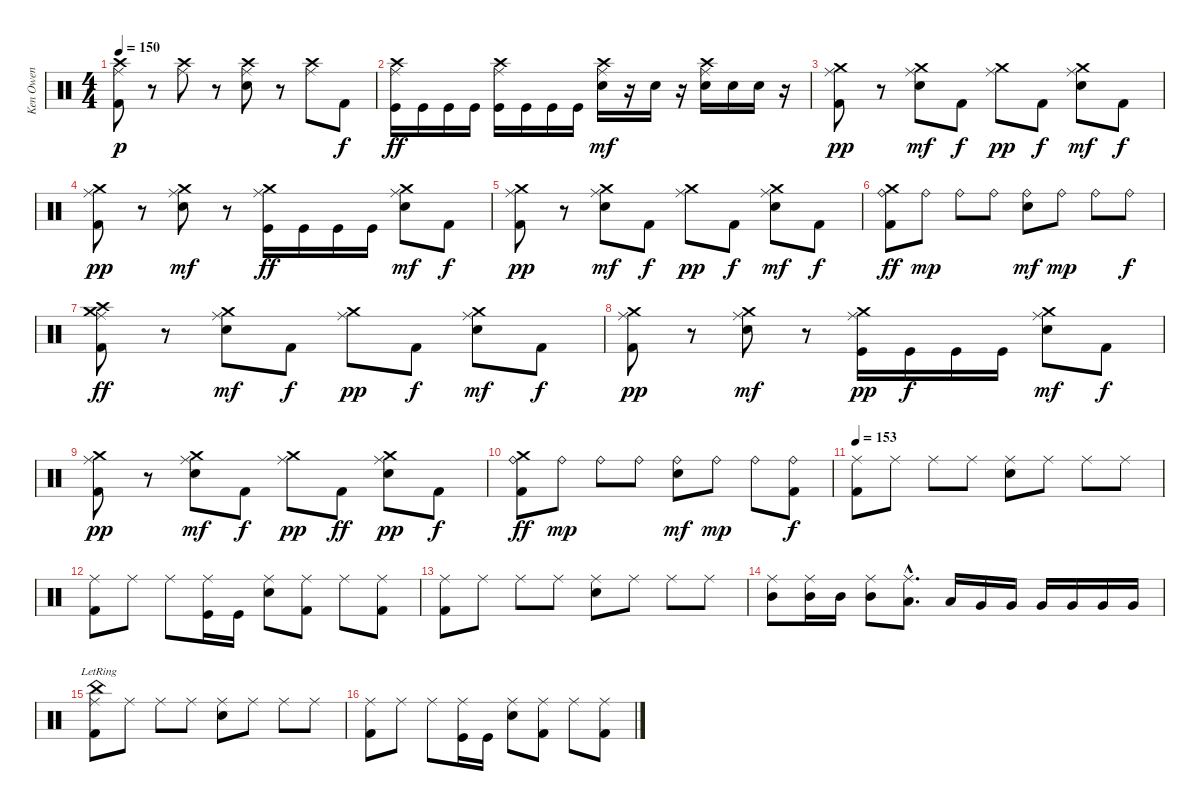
\track ("Ken Owen" "Ken Owen") {instrument percussion}
\staff {score}
\articulation defaults
\ts (4 4)
\tempo 150
\clef neutral
\ks c
("Crash high (hit)" "Ride (middle)" "Kick (hit) 2").8{dy p} r.8 ("Crash high (hit)" "Ride (middle)").8 r.8 ("Crash high (hit)" "Ride (middle)" "Electric Snare (hit)").8 r.8 ("Crash high (hit)" "Ride (middle)").8 "Kick (hit) 2".8{dy f} |
("Crash high (hit)" "Ride (middle)" "Kick (hit)").16{dy ff} "Kick (hit)".16 "Kick (hit)".16 "Kick (hit)".16 ("Crash high (hit)" "Ride (middle)" "Kick (hit)").16 "Kick (hit)".16 "Kick (hit)".16 "Kick (hit)".16 ("Crash high (hit)" "Ride (middle)" "Electric Snare (hit)").16{dy mf} r.16 "Electric Snare (hit)".16 r.16 ("Crash high (hit)" "Ride (middle)" "Electric Snare (hit)").16 "Electric Snare (hit)".16 "Electric Snare (hit)".16 r.16 |
("Crash medium (hit)" "Ride (middle)" "Kick (hit) 2").8{dy pp} r.8 ("Crash medium (hit)" "Ride (middle)" "Electric Snare (hit)").8{dy mf} "Kick (hit) 2".8{dy f} ("Crash medium (hit)" "Ride (middle)").8{dy pp} "Kick (hit) 2".8{dy f} ("Crash medium (hit)" "Ride (middle)" "Electric Snare (hit)").8{dy mf} "Kick (hit) 2".8{dy f} |
("Crash medium (hit)" "Ride (middle)" "Kick (hit) 2").8{dy pp} r.8 ("Crash medium (hit)" "Ride (middle)" "Electric Snare (hit)").8{dy mf} r.8 ("Crash medium (hit)" "Ride (middle)" "Kick (hit)").16{dy ff} "Kick (hit)".16 "Kick (hit)".16 "Kick (hit)".16 ("Crash medium (hit)" "Ride (middle)" "Electric Snare (hit)").8{dy mf} "Kick (hit) 2".8{dy f} |
("Crash medium (hit)" "Ride (middle)" "Kick (hit) 2").8{dy pp} r.8 ("Crash medium (hit)" "Ride (middle)" "Electric Snare (hit)").8{dy mf} "Kick (hit) 2".8{dy f} ("Crash medium (hit)" "Ride (middle)").8{dy pp} "Kick (hit) 2".8{dy f} ("Crash medium (hit)" "Ride (middle)" "Electric Snare (hit)").8{dy mf} "Kick (hit) 2".8{dy f} |
("Ride (bell)" "Kick (hit) 2" "Crash medium (hit)").8{dy ff} "Ride (bell)".8{dy mp} "Ride (bell)".8 "Ride (bell)".8 ("Ride (bell)" "Electric Snare (hit)").8{dy mf} "Ride (bell)".8{dy mp} "Ride (bell)".8 "Ride (bell)".8{dy f} |
("Crash medium (hit)" "Ride (middle)" "Kick (hit) 2" "Crash high (hit)").8{dy ff} r.8 ("Crash medium (hit)" "Ride (middle)" "Electric Snare (hit)").8{dy mf} "Kick (hit) 2".8{dy f} ("Crash medium (hit)" "Ride (middle)").8{dy pp} "Kick (hit) 2".8{dy f} ("Crash medium (hit)" "Ride (middle)" "Electric Snare (hit)").8{dy mf} "Kick (hit) 2".8{dy f} |
("Crash medium (hit)" "Ride (middle)" "Kick (hit) 2").8{dy pp} r.8 ("Crash medium (hit)" "Ride (middle)" "Electric Snare (hit)").8{dy mf} r.8 ("Crash medium (hit)" "Ride (middle)" "Kick (hit)").16{dy pp} "Kick (hit)".16{dy f} "Kick (hit)".16 "Kick (hit)".16 ("Crash medium (hit)" "Ride (middle)" "Electric Snare (hit)").8{dy mf} "Kick (hit) 2".8{dy f} |
("Crash medium (hit)" "Ride (middle)" "Kick (hit) 2").8{dy pp} r.8 ("Crash medium (hit)" "Ride (middle)" "Electric Snare (hit)").8{dy mf} "Kick (hit) 2".8{dy f} ("Crash medium (hit)" "Ride (middle)").8{dy pp} "Kick (hit) 2".8{dy ff} ("Crash medium (hit)" "Ride (middle)" "Electric Snare (hit)").8{dy pp} "Kick (hit) 2".8{dy f} |
("Ride (bell)" "Kick (hit) 2" "Crash medium (hit)").8{dy ff} "Ride (bell)".8{dy mp} "Ride (bell)".8 "Ride (bell)".8 ("Ride (bell)" "Electric Snare (hit)").8{dy mf} "Ride (bell)".8{dy mp} "Ride (bell)".8 ("Ride (bell)" "Kick (hit) 2").8{dy f} |
\tempo 153
("Ride (middle)" "Kick (hit) 2").8 "Ride (middle)".8 "Ride (middle)".8 "Ride (middle)".8 ("Ride (middle)" "Electric Snare (hit)").8 "Ride (middle)".8 "Ride (middle)".8 "Ride (middle)".8 |
("Ride (middle)" "Kick (hit) 2").8 "Ride (middle)".8 "Ride (middle)".8 ("Ride (middle)" "Kick (hit)").16 "Kick (hit)".16 ("Ride (middle)" "Electric Snare (hit)").8 ("Ride (middle)" "Kick (hit) 2").8 "Ride (middle)".8 ("Ride (middle)" "Kick (hit) 2").8 |
("Ride (middle)" "Kick (hit) 2").8 "Ride (middle)".8 "Ride (middle)".8 "Ride (middle)".8 ("Ride (middle)" "Electric Snare (hit)").8 "Ride (middle)".8 "Ride (middle)".8 "Ride (middle)".8 |
("Ride (middle)" "Mid Tom (hit)").8 ("Ride (middle)" "Mid Tom (hit)").16 "Mid Tom (hit)".16 ("Ride (middle)" "Mid Tom (hit)").8 ("Ride (middle)"{hac} "Low Tom (hit)"{hac}).8{d} "Low Tom (hit)".16 "Very Low Tom (hit)".16 "Very Low Tom (hit)".16 "Very Low Tom (hit)".16 "Very Low Tom (hit)".16 "Very Low Tom (hit)".16 "Very Low Tom (hit)".16 |
("Ride (middle)" "Kick (hit) 2" "China (hit)"{lr}).8 "Ride (middle)".8 "Ride (middle)".8 "Ride (middle)".8 ("Ride (middle)" "Electric Snare (hit)").8 "Ride (middle)".8 "Ride (middle)".8 "Ride (middle)".8 |
("Ride (middle)" "Kick (hit) 2").8 "Ride (middle)".8 "Ride (middle)".8 ("Ride (middle)" "Kick (hit)").16 "Kick (hit)".16 ("Ride (middle)" "Electric Snare (hit)").8 ("Ride (middle)" "Kick (hit) 2").8 "Ride (middle)".8 ("Ride (middle)" "Kick (hit) 2").8
